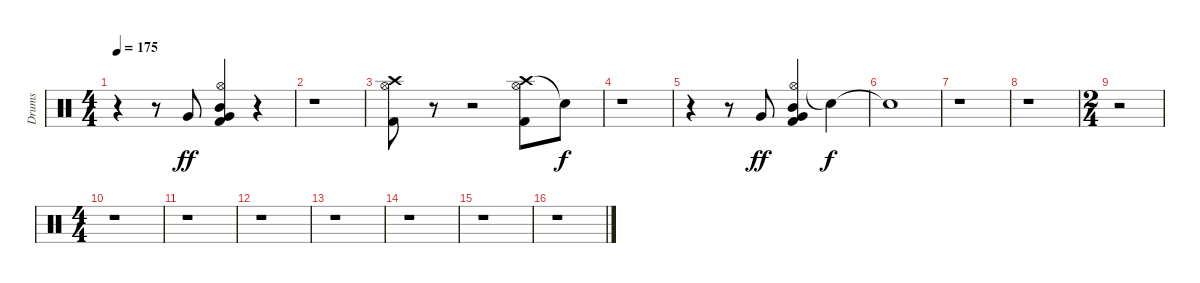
\track ("Drums" "Drums") {instrument percussion}
\staff {score}
\articulation defaults
\ts (4 4)
\tempo 175
\clef neutral
\ks c
r.4{dy f} r.8 "Very Low Tom (hit)".8{dy ff} ("Hi-Hat (open)" "Very Low Tom (hit)" "Mid Tom (hit)" "Kick (hit) 2").4 r.4 |
r.1 |
("Crash high (hit)" "Hi-Hat (open)" "Kick (hit) 2").8 r.8 r.2 ("Crash high (hit)" "Hi-Hat (open)" "Kick (hit) 2").8 "Snare (hit)"{t}.8{dy f} |
r.1 |
r.4 r.8 "Very Low Tom (hit)".8{dy ff} ("Hi-Hat (open)" "Very Low Tom (hit)" "Mid Tom (hit)" "Kick (hit) 2").4 "Snare (hit)"{t}.4{dy f} |
"Snare (hit)"{t}.1 |
r.1 |
r.1 |
\ts (2 4)
r.2 |
\ts (4 4)
r.1 |
r.1 |
r.1 |
r.1 |
r.1 |
r.1 |
r.1
